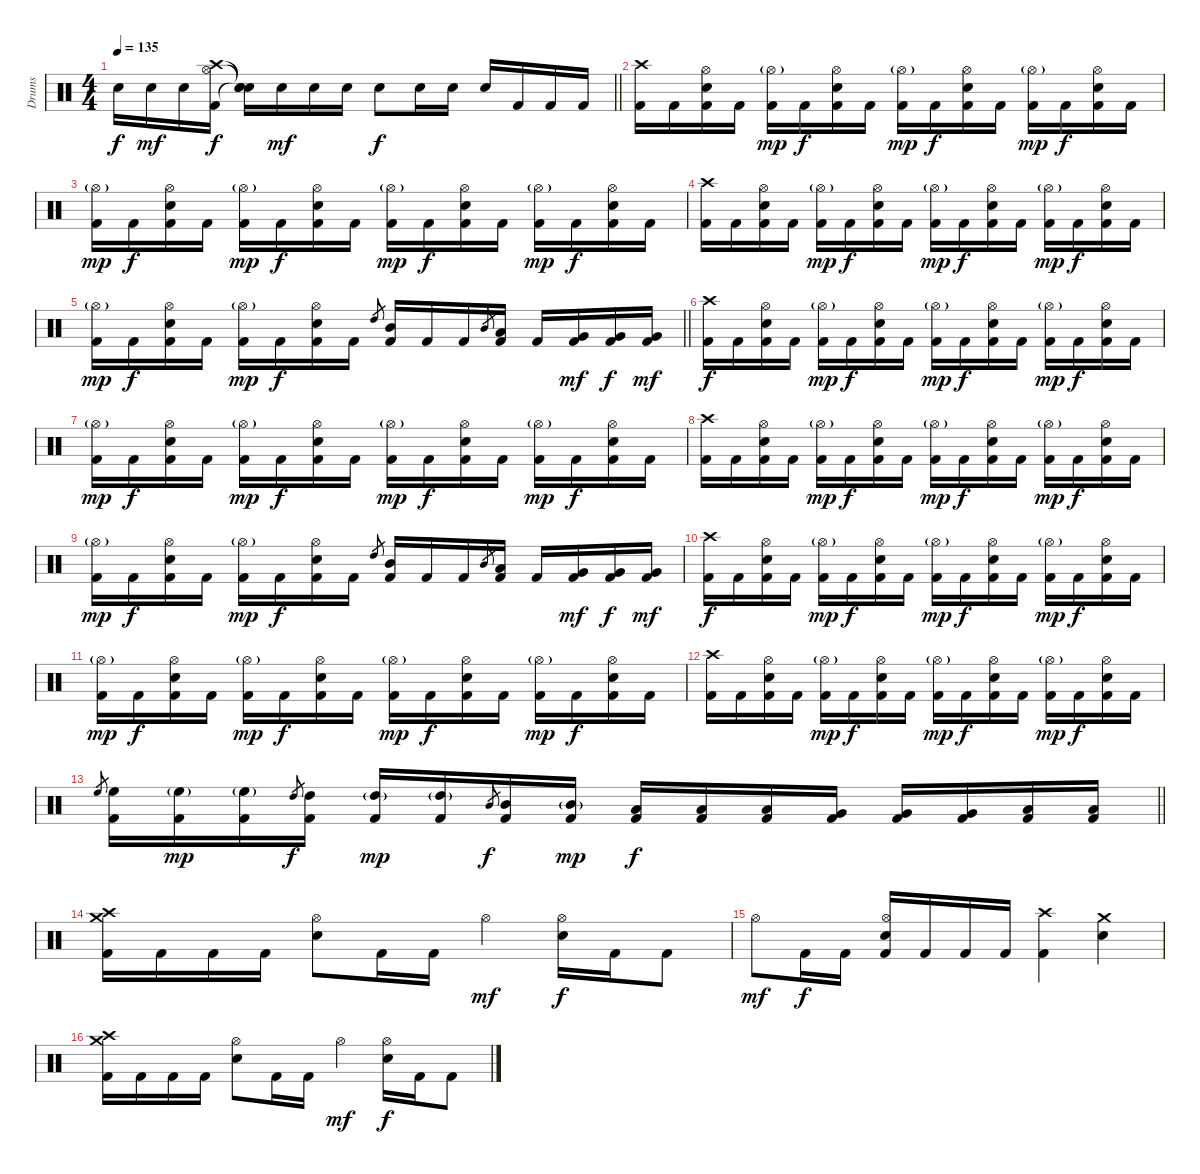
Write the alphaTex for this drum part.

\track ("Drums" "Drums") {instrument percussion}
\staff {score}
\articulation defaults
\ts (4 4)
\tempo 135
\clef neutral
\barLineRight lightlight
\ks c "Electric Snare (hit)".16{dy f} "Electric Snare (hit)".16{dy mf} "Electric Snare (hit)".16
("Crash high (hit)" "Hi-Hat (open)" "Kick (hit) 2").16{dy f} ("Snare (hit)"{t} "Snare (hit)"{t} "Snare (hit)"{t}).16 "Electric Snare (hit)".16{dy mf} "Electric Snare (hit)".16 "Electric Snare (hit)".16 "Electric Snare (hit)".8{dy f} "Electric Snare (hit)".16 "Electric Snare (hit)".16 "Electric Snare (hit)".16 "Kick (hit) 2".16 "Kick (hit) 2".16 "Kick (hit) 2".16 |
("Crash high (hit)" "Kick (hit) 2").16 "Kick (hit) 2".16 ("Hi-Hat (open)" "Electric Snare (hit)" "Kick (hit) 2").16 "Kick (hit) 2".16 ("Hi-Hat (open)"{g} "Kick (hit) 2").16{dy mp} "Kick (hit) 2".16{dy f} ("Hi-Hat (open)" "Electric Snare (hit)" "Kick (hit) 2").16 "Kick (hit) 2".16 ("Hi-Hat (open)"{g} "Kick (hit) 2").16{dy mp} "Kick (hit) 2".16{dy f} ("Hi-Hat (open)" "Electric Snare (hit)" "Kick (hit) 2").16 "Kick (hit) 2".16 ("Hi-Hat (open)"{g} "Kick (hit) 2").16{dy mp} "Kick (hit) 2".16{dy f} ("Hi-Hat (open)" "Electric Snare (hit)" "Kick (hit) 2").16 "Kick (hit) 2".16 |
("Hi-Hat (open)"{g} "Kick (hit) 2").16{dy mp} "Kick (hit) 2".16{dy f} ("Hi-Hat (open)" "Electric Snare (hit)" "Kick (hit) 2").16 "Kick (hit) 2".16 ("Hi-Hat (open)"{g} "Kick (hit) 2").16{dy mp} "Kick (hit) 2".16{dy f} ("Hi-Hat (open)" "Electric Snare (hit)" "Kick (hit) 2").16 "Kick (hit) 2".16 ("Hi-Hat (open)"{g} "Kick (hit) 2").16{dy mp} "Kick (hit) 2".16{dy f} ("Hi-Hat (open)" "Electric Snare (hit)" "Kick (hit) 2").16 "Kick (hit) 2".16 ("Hi-Hat (open)"{g} "Kick (hit) 2").16{dy mp} "Kick (hit) 2".16{dy f} ("Hi-Hat (open)" "Electric Snare (hit)" "Kick (hit) 2").16 "Kick (hit) 2".16 |
("Crash high (hit)" "Kick (hit) 2").16 "Kick (hit) 2".16 ("Hi-Hat (open)" "Electric Snare (hit)" "Kick (hit) 2").16 "Kick (hit) 2".16 ("Hi-Hat (open)"{g} "Kick (hit) 2").16{dy mp} "Kick (hit) 2".16{dy f} ("Hi-Hat (open)" "Electric Snare (hit)" "Kick (hit) 2").16 "Kick (hit) 2".16 ("Hi-Hat (open)"{g} "Kick (hit) 2").16{dy mp} "Kick (hit) 2".16{dy f} ("Hi-Hat (open)" "Electric Snare (hit)" "Kick (hit) 2").16 "Kick (hit) 2".16 ("Hi-Hat (open)"{g} "Kick (hit) 2").16{dy mp} "Kick (hit) 2".16{dy f} ("Hi-Hat (open)" "Electric Snare (hit)" "Kick (hit) 2").16 "Kick (hit) 2".16 |
\barLineRight lightlight
("Hi-Hat (open)"{g} "Kick (hit) 2").16{dy mp} "Kick (hit) 2".16{dy f} ("Hi-Hat (open)" "Electric Snare (hit)" "Kick (hit) 2").16 "Kick (hit) 2".16 ("Hi-Hat (open)"{g} "Kick (hit) 2").16{dy mp} "Kick (hit) 2".16{dy f} ("Hi-Hat (open)" "Electric Snare (hit)" "Kick (hit) 2").16 "Kick (hit) 2".16 "High Tom (hit)".8{gr} ("Mid Tom (hit)" "Kick (hit) 2").16 "Kick (hit) 2".16 "Kick (hit) 2".16 "Mid Tom (hit)".8{gr} ("Low Tom (hit)" "Kick (hit) 2").16 "Kick (hit) 2".16 ("Very Low Tom (hit)" "Kick (hit) 2").16{dy mf} ("Very Low Tom (hit)" "Kick (hit) 2").16{dy f} ("Very Low Tom (hit)" "Kick (hit) 2").16{dy mf} |
("Crash high (hit)" "Kick (hit) 2").16{dy f} "Kick (hit) 2".16 ("Hi-Hat (open)" "Electric Snare (hit)" "Kick (hit) 2").16 "Kick (hit) 2".16 ("Hi-Hat (open)"{g} "Kick (hit) 2").16{dy mp} "Kick (hit) 2".16{dy f} ("Hi-Hat (open)" "Electric Snare (hit)" "Kick (hit) 2").16 "Kick (hit) 2".16 ("Hi-Hat (open)"{g} "Kick (hit) 2").16{dy mp} "Kick (hit) 2".16{dy f} ("Hi-Hat (open)" "Electric Snare (hit)" "Kick (hit) 2").16 "Kick (hit) 2".16 ("Hi-Hat (open)"{g} "Kick (hit) 2").16{dy mp} "Kick (hit) 2".16{dy f} ("Hi-Hat (open)" "Electric Snare (hit)" "Kick (hit) 2").16 "Kick (hit) 2".16 |
("Hi-Hat (open)"{g} "Kick (hit) 2").16{dy mp} "Kick (hit) 2".16{dy f} ("Hi-Hat (open)" "Electric Snare (hit)" "Kick (hit) 2").16 "Kick (hit) 2".16 ("Hi-Hat (open)"{g} "Kick (hit) 2").16{dy mp} "Kick (hit) 2".16{dy f} ("Hi-Hat (open)" "Electric Snare (hit)" "Kick (hit) 2").16 "Kick (hit) 2".16 ("Hi-Hat (open)"{g} "Kick (hit) 2").16{dy mp} "Kick (hit) 2".16{dy f} ("Hi-Hat (open)" "Electric Snare (hit)" "Kick (hit) 2").16 "Kick (hit) 2".16 ("Hi-Hat (open)"{g} "Kick (hit) 2").16{dy mp} "Kick (hit) 2".16{dy f} ("Hi-Hat (open)" "Electric Snare (hit)" "Kick (hit) 2").16 "Kick (hit) 2".16 |
("Crash high (hit)" "Kick (hit) 2").16 "Kick (hit) 2".16 ("Hi-Hat (open)" "Electric Snare (hit)" "Kick (hit) 2").16 "Kick (hit) 2".16 ("Hi-Hat (open)"{g} "Kick (hit) 2").16{dy mp} "Kick (hit) 2".16{dy f} ("Hi-Hat (open)" "Electric Snare (hit)" "Kick (hit) 2").16 "Kick (hit) 2".16 ("Hi-Hat (open)"{g} "Kick (hit) 2").16{dy mp} "Kick (hit) 2".16{dy f} ("Hi-Hat (open)" "Electric Snare (hit)" "Kick (hit) 2").16 "Kick (hit) 2".16 ("Hi-Hat (open)"{g} "Kick (hit) 2").16{dy mp} "Kick (hit) 2".16{dy f} ("Hi-Hat (open)" "Electric Snare (hit)" "Kick (hit) 2").16 "Kick (hit) 2".16 |
("Hi-Hat (open)"{g} "Kick (hit) 2").16{dy mp} "Kick (hit) 2".16{dy f} ("Hi-Hat (open)" "Electric Snare (hit)" "Kick (hit) 2").16 "Kick (hit) 2".16 ("Hi-Hat (open)"{g} "Kick (hit) 2").16{dy mp} "Kick (hit) 2".16{dy f} ("Hi-Hat (open)" "Electric Snare (hit)" "Kick (hit) 2").16 "Kick (hit) 2".16 "High Tom (hit)".8{gr} ("Mid Tom (hit)" "Kick (hit) 2").16 "Kick (hit) 2".16 "Kick (hit) 2".16 "Mid Tom (hit)".8{gr} ("Low Tom (hit)" "Kick (hit) 2").16 "Kick (hit) 2".16 ("Very Low Tom (hit)" "Kick (hit) 2").16{dy mf} ("Very Low Tom (hit)" "Kick (hit) 2").16{dy f} ("Very Low Tom (hit)" "Kick (hit) 2").16{dy mf} |
("Crash high (hit)" "Kick (hit) 2").16{dy f} "Kick (hit) 2".16 ("Hi-Hat (open)" "Electric Snare (hit)" "Kick (hit) 2").16 "Kick (hit) 2".16 ("Hi-Hat (open)"{g} "Kick (hit) 2").16{dy mp} "Kick (hit) 2".16{dy f} ("Hi-Hat (open)" "Electric Snare (hit)" "Kick (hit) 2").16 "Kick (hit) 2".16 ("Hi-Hat (open)"{g} "Kick (hit) 2").16{dy mp} "Kick (hit) 2".16{dy f} ("Hi-Hat (open)" "Electric Snare (hit)" "Kick (hit) 2").16 "Kick (hit) 2".16 ("Hi-Hat (open)"{g} "Kick (hit) 2").16{dy mp} "Kick (hit) 2".16{dy f} ("Hi-Hat (open)" "Electric Snare (hit)" "Kick (hit) 2").16 "Kick (hit) 2".16 |
("Hi-Hat (open)"{g} "Kick (hit) 2").16{dy mp} "Kick (hit) 2".16{dy f} ("Hi-Hat (open)" "Electric Snare (hit)" "Kick (hit) 2").16 "Kick (hit) 2".16 ("Hi-Hat (open)"{g} "Kick (hit) 2").16{dy mp} "Kick (hit) 2".16{dy f} ("Hi-Hat (open)" "Electric Snare (hit)" "Kick (hit) 2").16 "Kick (hit) 2".16 ("Hi-Hat (open)"{g} "Kick (hit) 2").16{dy mp} "Kick (hit) 2".16{dy f} ("Hi-Hat (open)" "Electric Snare (hit)" "Kick (hit) 2").16 "Kick (hit) 2".16 ("Hi-Hat (open)"{g} "Kick (hit) 2").16{dy mp} "Kick (hit) 2".16{dy f} ("Hi-Hat (open)" "Electric Snare (hit)" "Kick (hit) 2").16 "Kick (hit) 2".16 |
("Crash high (hit)" "Kick (hit) 2").16 "Kick (hit) 2".16 ("Hi-Hat (open)" "Electric Snare (hit)" "Kick (hit) 2").16 "Kick (hit) 2".16 ("Hi-Hat (open)"{g} "Kick (hit) 2").16{dy mp} "Kick (hit) 2".16{dy f} ("Hi-Hat (open)" "Electric Snare (hit)" "Kick (hit) 2").16 "Kick (hit) 2".16 ("Hi-Hat (open)"{g} "Kick (hit) 2").16{dy mp} "Kick (hit) 2".16{dy f} ("Hi-Hat (open)" "Electric Snare (hit)" "Kick (hit) 2").16 "Kick (hit) 2".16 ("Hi-Hat (open)"{g} "Kick (hit) 2").16{dy mp} "Kick (hit) 2".16{dy f} ("Hi-Hat (open)" "Electric Snare (hit)" "Kick (hit) 2").16 "Kick (hit) 2".16 |
\barLineRight lightlight "High Floor Tom (hit)".8{gr}
("High Floor Tom (hit)" "Kick (hit) 2").16 ("High Floor Tom (hit)"{g} "Kick (hit) 2").16{dy mp} ("High Floor Tom (hit)"{g} "Kick (hit) 2").16 "High Tom (hit)".8{gr dy f} ("High Tom (hit)" "Kick (hit) 2").16 ("High Tom (hit)"{g} "Kick (hit) 2").16{dy mp} ("High Tom (hit)"{g} "Kick (hit) 2").16 "Mid Tom (hit)".8{gr dy f} ("Mid Tom (hit)" "Kick (hit) 2").16 ("Mid Tom (hit)"{g} "Kick (hit) 2").16{dy mp} ("Low Tom (hit)" "Kick (hit) 2").16{dy f} ("Low Tom (hit)" "Kick (hit) 2").16 ("Low Tom (hit)" "Kick (hit) 2").16 ("Very Low Tom (hit)" "Kick (hit) 2").16 ("Very Low Tom (hit)" "Kick (hit) 2").16 ("Very Low Tom (hit)" "Kick (hit) 2").16 ("Low Floor Tom (hit)" "Kick (hit) 2").16 ("Low Floor Tom (hit)" "Kick (hit) 2").16 |
("Crash high (hit)" "Crash medium (hit)" "Kick (hit) 2").16 "Kick (hit) 2".16 "Kick (hit) 2".16 "Kick (hit) 2".16 ("Hi-Hat (open)" "Electric Snare (hit)").8 "Kick (hit) 2".16 "Kick (hit) 2".16 "Hi-Hat (open)".4{dy mf} ("Hi-Hat (open)" "Electric Snare (hit)").16{dy f} "Kick (hit) 2".16 "Kick (hit) 2".8 |
"Hi-Hat (open)".8{dy mf} "Kick (hit) 2".16{dy f} "Kick (hit) 2".16 ("Hi-Hat (open)" "Electric Snare (hit)" "Kick (hit) 2").16 "Kick (hit) 2".16 "Kick (hit) 2".16 "Kick (hit) 2".16 ("Crash high (hit)" "Kick (hit) 2").4 ("Crash medium (hit)" "Electric Snare (hit)").4 |
("Crash high (hit)" "Crash medium (hit)" "Kick (hit) 2").16 "Kick (hit) 2".16 "Kick (hit) 2".16 "Kick (hit) 2".16 ("Hi-Hat (open)" "Electric Snare (hit)").8 "Kick (hit) 2".16 "Kick (hit) 2".16 "Hi-Hat (open)".4{dy mf} ("Hi-Hat (open)" "Electric Snare (hit)").16{dy f} "Kick (hit) 2".16 "Kick (hit) 2".8
